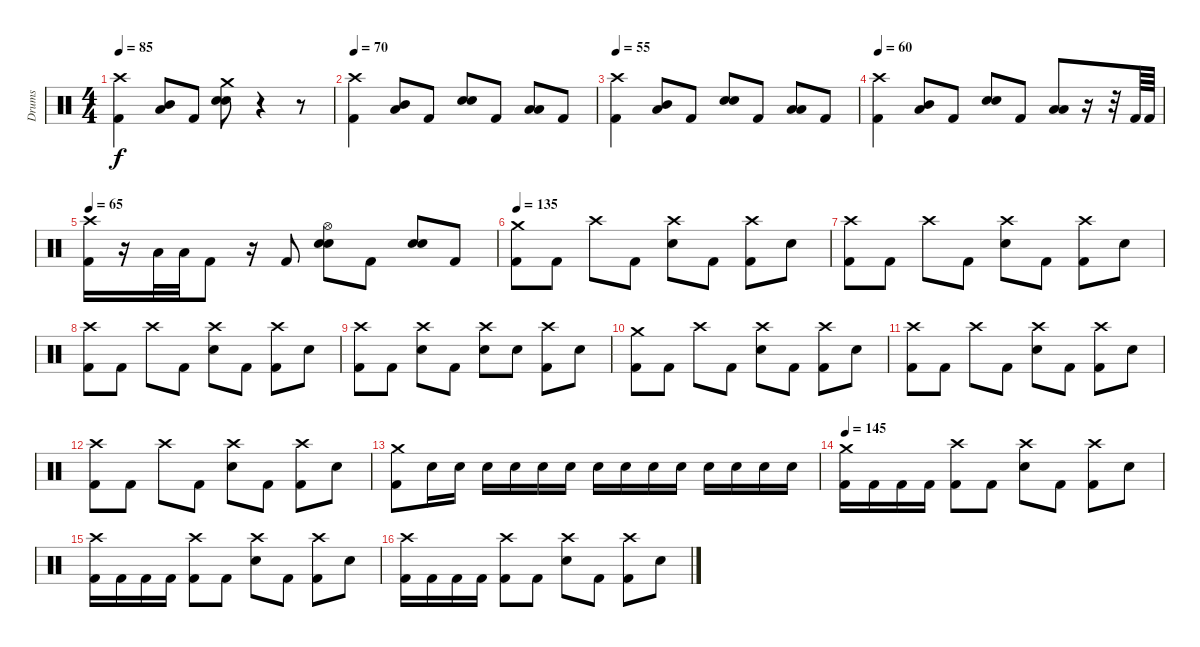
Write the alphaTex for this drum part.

\track ("Drums" "Drums") {instrument percussion}
\staff {score}
\articulation defaults
\ts (4 4)
\tempo 85
\clef neutral
\ks c
("Crash high (hit)" "Kick (hit) 2").4{dy f} ("Mid Tom (hit)" "Low Tom (hit)").8{bu 60} "Kick (hit) 2".8 ("Crash medium (hit)" "Electric Snare (hit)" "Electric Snare (hit)").8{bu 60} r.4 r.8 |
\tempo 70
("Crash high (hit)" "Kick (hit) 2").4 ("Mid Tom (hit)" "Low Tom (hit)").8{bu 60} "Kick (hit) 2".8 ("Electric Snare (hit)" "Electric Snare (hit)").8{bu 60} "Kick (hit) 2".8 ("Low Tom (hit)" "Low Floor Tom (hit)").8{bu 60} "Kick (hit) 2".8 |
\tempo 55
("Crash high (hit)" "Kick (hit) 2").4 ("Mid Tom (hit)" "Low Tom (hit)").8{bu 60} "Kick (hit) 2".8 ("Electric Snare (hit)" "Electric Snare (hit)").8{bu 60} "Kick (hit) 2".8 ("Low Tom (hit)" "Low Floor Tom (hit)").8{bu 60} "Kick (hit) 2".8 |
\tempo 60
("Crash high (hit)" "Kick (hit) 2").4 ("Mid Tom (hit)" "Low Tom (hit)").8{bu 60} "Kick (hit) 2".8 ("Electric Snare (hit)" "Electric Snare (hit)").8{bu 60} "Kick (hit) 2".8 ("Low Tom (hit)" "Low Floor Tom (hit)").8{bu 60} r.16 r.32 "Kick (hit) 2".64 "Kick (hit) 2".64 |
\tempo 65
("Crash high (hit)" "Kick (hit) 2").16 r.16 "Low Tom (hit)".32 "Low Floor Tom (hit)".32 "Kick (hit) 2".8 r.16 "Kick (hit) 2".8 ("Hi-Hat (open)" "Electric Snare (hit)" "Electric Snare (hit)").8{bu 60} "Kick (hit) 2".8 ("Electric Snare (hit)" "Electric Snare (hit)").8{bu 60} "Kick (hit) 2".8 |
\tempo 135
("Crash medium (hit)" "Kick (hit) 2").8 "Kick (hit) 2".8 "Crash high (hit)".8 "Kick (hit) 2".8 ("Crash high (hit)" "Electric Snare (hit)").8 "Kick (hit) 2".8 ("Crash high (hit)" "Kick (hit) 2").8 "Electric Snare (hit)".8 |
("Crash high (hit)" "Kick (hit) 2").8 "Kick (hit) 2".8 "Crash high (hit)".8 "Kick (hit) 2".8 ("Crash high (hit)" "Electric Snare (hit)").8 "Kick (hit) 2".8 ("Crash high (hit)" "Kick (hit) 2").8 "Electric Snare (hit)".8 |
("Crash high (hit)" "Kick (hit) 2").8 "Kick (hit) 2".8 "Crash high (hit)".8 "Kick (hit) 2".8 ("Crash high (hit)" "Electric Snare (hit)").8 "Kick (hit) 2".8 ("Crash high (hit)" "Kick (hit) 2").8 "Electric Snare (hit)".8 |
("Crash high (hit)" "Kick (hit) 2").8 "Kick (hit) 2".8 ("Crash high (hit)" "Electric Snare (hit)").8 "Kick (hit) 2".8 ("Crash high (hit)" "Electric Snare (hit)").8 "Electric Snare (hit)".8 ("Crash high (hit)" "Kick (hit) 2").8 "Electric Snare (hit)".8 |
("Crash medium (hit)" "Kick (hit) 2").8 "Kick (hit) 2".8 "Crash high (hit)".8 "Kick (hit) 2".8 ("Crash high (hit)" "Electric Snare (hit)").8 "Kick (hit) 2".8 ("Crash high (hit)" "Kick (hit) 2").8 "Electric Snare (hit)".8 |
("Crash high (hit)" "Kick (hit) 2").8 "Kick (hit) 2".8 "Crash high (hit)".8 "Kick (hit) 2".8 ("Crash high (hit)" "Electric Snare (hit)").8 "Kick (hit) 2".8 ("Crash high (hit)" "Kick (hit) 2").8 "Electric Snare (hit)".8 |
("Crash high (hit)" "Kick (hit) 2").8 "Kick (hit) 2".8 "Crash high (hit)".8 "Kick (hit) 2".8 ("Crash high (hit)" "Electric Snare (hit)").8 "Kick (hit) 2".8 ("Crash high (hit)" "Kick (hit) 2").8 "Electric Snare (hit)".8 |
("Crash medium (hit)" "Kick (hit) 2").8 "Electric Snare (hit)".16 "Electric Snare (hit)".16 "Electric Snare (hit)".16 "Electric Snare (hit)".16 "Electric Snare (hit)".16 "Electric Snare (hit)".16 "Electric Snare (hit)".16 "Electric Snare (hit)".16 "Electric Snare (hit)".16 "Electric Snare (hit)".16 "Electric Snare (hit)".16 "Electric Snare (hit)".16 "Electric Snare (hit)".16 "Electric Snare (hit)".16 |
\tempo 145
("Crash medium (hit)" "Kick (hit) 2").16 "Kick (hit) 2".16 "Kick (hit) 2".16 "Kick (hit) 2".16 ("Crash high (hit)" "Kick (hit) 2").8 "Kick (hit) 2".8 ("Crash high (hit)" "Electric Snare (hit)").8 "Kick (hit) 2".8 ("Crash high (hit)" "Kick (hit) 2").8 "Electric Snare (hit)".8 |
("Crash high (hit)" "Kick (hit) 2").16 "Kick (hit) 2".16 "Kick (hit) 2".16 "Kick (hit) 2".16 ("Crash high (hit)" "Kick (hit) 2").8 "Kick (hit) 2".8 ("Crash high (hit)" "Electric Snare (hit)").8 "Kick (hit) 2".8 ("Crash high (hit)" "Kick (hit) 2").8 "Electric Snare (hit)".8 |
("Crash high (hit)" "Kick (hit) 2").16 "Kick (hit) 2".16 "Kick (hit) 2".16 "Kick (hit) 2".16 ("Crash high (hit)" "Kick (hit) 2").8 "Kick (hit) 2".8 ("Crash high (hit)" "Electric Snare (hit)").8 "Kick (hit) 2".8 ("Crash high (hit)" "Kick (hit) 2").8 "Electric Snare (hit)".8
